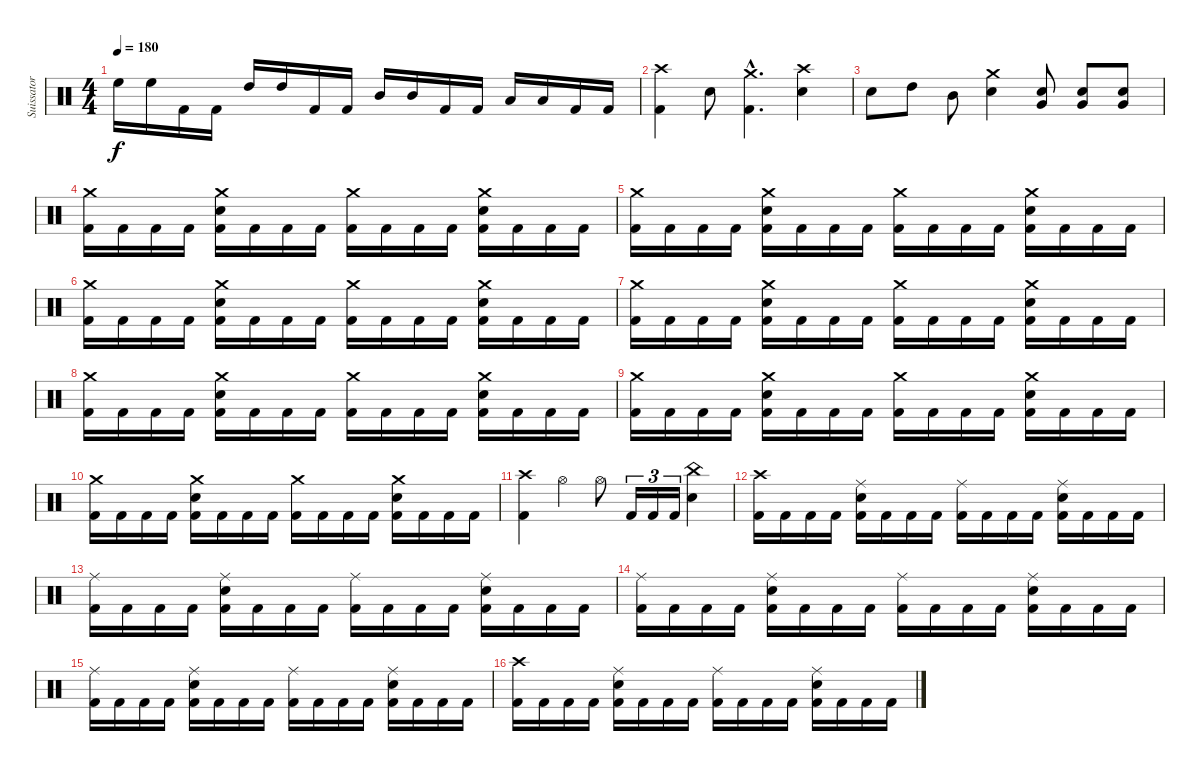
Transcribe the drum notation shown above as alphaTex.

\track ("Suissator" "Suissator") {instrument percussion}
\staff {score}
\articulation defaults
\ts (4 4)
\tempo 180
\clef neutral
\ks c "High Floor Tom (hit)".16{dy f} "High Floor Tom (hit)".16 "Kick (hit) 2".16 "Kick (hit) 2".16 "High Tom (hit)".16 "High Tom (hit)".16 "Kick (hit) 2".16 "Kick (hit) 2".16 "Mid Tom (hit)".16 "Mid Tom (hit)".16 "Kick (hit) 2".16 "Kick (hit) 2".16 "Low Tom (hit)".16 "Low Tom (hit)".16 "Kick (hit) 2".16 "Kick (hit) 2".16
|
("Kick (hit) 2" "Crash high (hit)").4 "Electric Snare (hit)".8 ("Kick (hit) 2"{hac} "Crash medium (hit)"{hac}).4{d} ("Electric Snare (hit)" "Crash high (hit)").4 |
"Electric Snare (hit)".8 "High Tom (hit)".8 "Mid Tom (hit)".8 ("Electric Snare (hit)" "Crash medium (hit)").4 ("Very Low Tom (hit)" "Electric Snare (hit)").8 ("Very Low Tom (hit)" "Electric Snare (hit)").8 ("Very Low Tom (hit)" "Electric Snare (hit)").8 |
("Kick (hit) 2" "Crash medium (hit)").16 "Kick (hit) 2".16 "Kick (hit) 2".16 "Kick (hit) 2".16 ("Kick (hit) 2" "Electric Snare (hit)" "Crash medium (hit)").16 "Kick (hit) 2".16 "Kick (hit) 2".16 "Kick (hit) 2".16 ("Kick (hit) 2" "Crash medium (hit)").16 "Kick (hit) 2".16 "Kick (hit) 2".16 "Kick (hit) 2".16 ("Kick (hit) 2" "Electric Snare (hit)" "Crash medium (hit)").16 "Kick (hit) 2".16 "Kick (hit) 2".16 "Kick (hit) 2".16 |
("Kick (hit) 2" "Crash medium (hit)").16 "Kick (hit) 2".16 "Kick (hit) 2".16 "Kick (hit) 2".16 ("Kick (hit) 2" "Electric Snare (hit)" "Crash medium (hit)").16 "Kick (hit) 2".16 "Kick (hit) 2".16 "Kick (hit) 2".16 ("Kick (hit) 2" "Crash medium (hit)").16 "Kick (hit) 2".16 "Kick (hit) 2".16 "Kick (hit) 2".16 ("Kick (hit) 2" "Electric Snare (hit)" "Crash medium (hit)").16 "Kick (hit) 2".16 "Kick (hit) 2".16 "Kick (hit) 2".16 |
("Kick (hit) 2" "Crash medium (hit)").16 "Kick (hit) 2".16 "Kick (hit) 2".16 "Kick (hit) 2".16 ("Kick (hit) 2" "Electric Snare (hit)" "Crash medium (hit)").16 "Kick (hit) 2".16 "Kick (hit) 2".16 "Kick (hit) 2".16 ("Kick (hit) 2" "Crash medium (hit)").16 "Kick (hit) 2".16 "Kick (hit) 2".16 "Kick (hit) 2".16 ("Kick (hit) 2" "Electric Snare (hit)" "Crash medium (hit)").16 "Kick (hit) 2".16 "Kick (hit) 2".16 "Kick (hit) 2".16 |
("Kick (hit) 2" "Crash medium (hit)").16 "Kick (hit) 2".16 "Kick (hit) 2".16 "Kick (hit) 2".16 ("Kick (hit) 2" "Electric Snare (hit)" "Crash medium (hit)").16 "Kick (hit) 2".16 "Kick (hit) 2".16 "Kick (hit) 2".16 ("Kick (hit) 2" "Crash medium (hit)").16 "Kick (hit) 2".16 "Kick (hit) 2".16 "Kick (hit) 2".16 ("Kick (hit) 2" "Electric Snare (hit)" "Crash medium (hit)").16 "Kick (hit) 2".16 "Kick (hit) 2".16 "Kick (hit) 2".16 |
("Kick (hit) 2" "Crash medium (hit)").16 "Kick (hit) 2".16 "Kick (hit) 2".16 "Kick (hit) 2".16 ("Kick (hit) 2" "Electric Snare (hit)" "Crash medium (hit)").16 "Kick (hit) 2".16 "Kick (hit) 2".16 "Kick (hit) 2".16 ("Kick (hit) 2" "Crash medium (hit)").16 "Kick (hit) 2".16 "Kick (hit) 2".16 "Kick (hit) 2".16 ("Kick (hit) 2" "Electric Snare (hit)" "Crash medium (hit)").16 "Kick (hit) 2".16 "Kick (hit) 2".16 "Kick (hit) 2".16 |
("Kick (hit) 2" "Crash medium (hit)").16 "Kick (hit) 2".16 "Kick (hit) 2".16 "Kick (hit) 2".16 ("Kick (hit) 2" "Electric Snare (hit)" "Crash medium (hit)").16 "Kick (hit) 2".16 "Kick (hit) 2".16 "Kick (hit) 2".16 ("Kick (hit) 2" "Crash medium (hit)").16 "Kick (hit) 2".16 "Kick (hit) 2".16 "Kick (hit) 2".16 ("Kick (hit) 2" "Electric Snare (hit)" "Crash medium (hit)").16 "Kick (hit) 2".16 "Kick (hit) 2".16 "Kick (hit) 2".16 |
("Kick (hit) 2" "Crash medium (hit)").16 "Kick (hit) 2".16 "Kick (hit) 2".16 "Kick (hit) 2".16 ("Kick (hit) 2" "Electric Snare (hit)" "Crash medium (hit)").16 "Kick (hit) 2".16 "Kick (hit) 2".16 "Kick (hit) 2".16 ("Kick (hit) 2" "Crash medium (hit)").16 "Kick (hit) 2".16 "Kick (hit) 2".16 "Kick (hit) 2".16 ("Kick (hit) 2" "Electric Snare (hit)" "Crash medium (hit)").16 "Kick (hit) 2".16 "Kick (hit) 2".16 "Kick (hit) 2".16 |
("Kick (hit) 2" "Crash high (hit)").4 "Hi-Hat (open)".4 "Hi-Hat (open)".8 "Kick (hit) 2".16{tu (3 2)} "Kick (hit) 2".16{tu (3 2)} "Kick (hit) 2".16{tu (3 2)} ("Electric Snare (hit)" "China (hit)").4 |
("Kick (hit) 2" "Crash high (hit)").16 "Kick (hit) 2".16 "Kick (hit) 2".16 "Kick (hit) 2".16 ("Kick (hit) 2" "Electric Snare (hit)" "Ride (middle)").16 "Kick (hit) 2".16 "Kick (hit) 2".16 "Kick (hit) 2".16 ("Kick (hit) 2" "Ride (middle)").16 "Kick (hit) 2".16 "Kick (hit) 2".16 "Kick (hit) 2".16 ("Kick (hit) 2" "Electric Snare (hit)" "Ride (middle)").16 "Kick (hit) 2".16 "Kick (hit) 2".16 "Kick (hit) 2".16 |
("Kick (hit) 2" "Ride (middle)").16 "Kick (hit) 2".16 "Kick (hit) 2".16 "Kick (hit) 2".16 ("Kick (hit) 2" "Electric Snare (hit)" "Ride (middle)").16 "Kick (hit) 2".16 "Kick (hit) 2".16 "Kick (hit) 2".16 ("Kick (hit) 2" "Ride (middle)").16 "Kick (hit) 2".16 "Kick (hit) 2".16 "Kick (hit) 2".16 ("Kick (hit) 2" "Electric Snare (hit)" "Ride (middle)").16 "Kick (hit) 2".16 "Kick (hit) 2".16 "Kick (hit) 2".16 |
("Kick (hit) 2" "Ride (middle)").16 "Kick (hit) 2".16 "Kick (hit) 2".16 "Kick (hit) 2".16 ("Kick (hit) 2" "Electric Snare (hit)" "Ride (middle)").16 "Kick (hit) 2".16 "Kick (hit) 2".16 "Kick (hit) 2".16 ("Kick (hit) 2" "Ride (middle)").16 "Kick (hit) 2".16 "Kick (hit) 2".16 "Kick (hit) 2".16 ("Kick (hit) 2" "Electric Snare (hit)" "Ride (middle)").16 "Kick (hit) 2".16 "Kick (hit) 2".16 "Kick (hit) 2".16 |
("Kick (hit) 2" "Ride (middle)").16 "Kick (hit) 2".16 "Kick (hit) 2".16 "Kick (hit) 2".16 ("Kick (hit) 2" "Electric Snare (hit)" "Ride (middle)").16 "Kick (hit) 2".16 "Kick (hit) 2".16 "Kick (hit) 2".16 ("Kick (hit) 2" "Ride (middle)").16 "Kick (hit) 2".16 "Kick (hit) 2".16 "Kick (hit) 2".16 ("Kick (hit) 2" "Electric Snare (hit)" "Ride (middle)").16 "Kick (hit) 2".16 "Kick (hit) 2".16 "Kick (hit) 2".16 |
("Kick (hit) 2" "Crash high (hit)").16 "Kick (hit) 2".16 "Kick (hit) 2".16 "Kick (hit) 2".16 ("Kick (hit) 2" "Electric Snare (hit)" "Ride (middle)").16 "Kick (hit) 2".16 "Kick (hit) 2".16 "Kick (hit) 2".16 ("Kick (hit) 2" "Ride (middle)").16 "Kick (hit) 2".16 "Kick (hit) 2".16 "Kick (hit) 2".16 ("Kick (hit) 2" "Electric Snare (hit)" "Ride (middle)").16 "Kick (hit) 2".16 "Kick (hit) 2".16 "Kick (hit) 2".16
